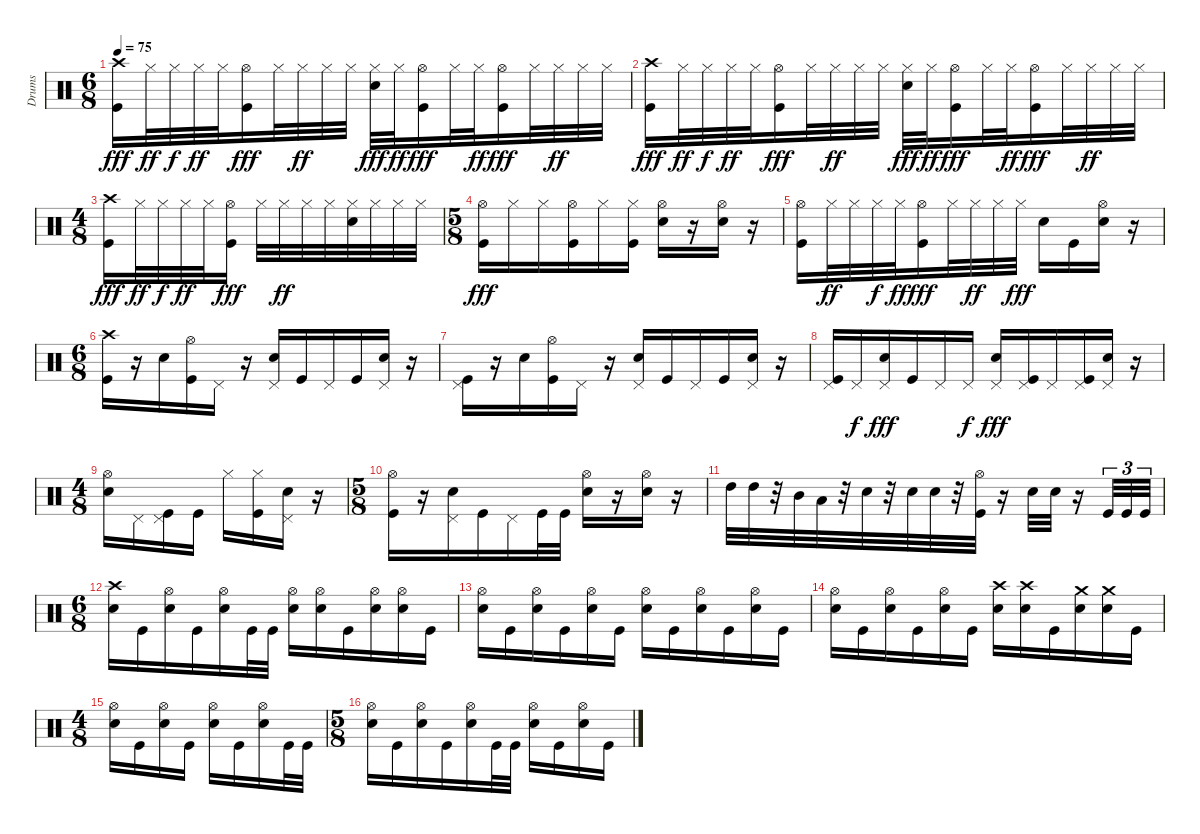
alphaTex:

\track ("Drums" "Drums") {instrument percussion}
\staff {score}
\articulation defaults
\ts (6 8)
\tempo 75
\clef neutral
\ks c
("Crash high (hit)" "Kick (hit)").16{dy fff} "Hi-Hat (closed)".32{dy ff} "Hi-Hat (closed)".32{dy f} "Hi-Hat (closed)".32{dy ff} "Hi-Hat (closed)".32 ("Hi-Hat (open)" "Kick (hit)").16{dy fff} "Hi-Hat (closed)".32 "Hi-Hat (closed)".32{dy ff} "Hi-Hat (closed)".32 "Hi-Hat (closed)".32 ("Hi-Hat (closed)" "Snare (hit) 2").32{dy fff} "Hi-Hat (closed)".32{dy ff} ("Hi-Hat (open)" "Kick (hit)").16{dy fff} "Hi-Hat (closed)".32 "Hi-Hat (closed)".32{dy ff} ("Hi-Hat (open)" "Kick (hit)").16{dy fff} "Hi-Hat (closed)".32 "Hi-Hat (closed)".32{dy ff} "Hi-Hat (closed)".32 "Hi-Hat (closed)".32 |
("Crash high (hit)" "Kick (hit)").16{dy fff} "Hi-Hat (closed)".32{dy ff} "Hi-Hat (closed)".32{dy f} "Hi-Hat (closed)".32{dy ff} "Hi-Hat (closed)".32 ("Hi-Hat (open)" "Kick (hit)").16{dy fff} "Hi-Hat (closed)".32 "Hi-Hat (closed)".32{dy ff} "Hi-Hat (closed)".32 "Hi-Hat (closed)".32 ("Hi-Hat (closed)" "Snare (hit) 2").32{dy fff} "Hi-Hat (closed)".32{dy ff} ("Hi-Hat (open)" "Kick (hit)").16{dy fff} "Hi-Hat (closed)".32 "Hi-Hat (closed)".32{dy ff} ("Hi-Hat (open)" "Kick (hit)").16{dy fff} "Hi-Hat (closed)".32 "Hi-Hat (closed)".32{dy ff} "Hi-Hat (closed)".32 "Hi-Hat (closed)".32 |
\ts (4 8)
("Kick (hit)" "Crash high (hit)").16{dy fff} "Hi-Hat (closed)".32{dy ff} "Hi-Hat (closed)".32{dy f} "Hi-Hat (closed)".32{dy ff} "Hi-Hat (closed)".32 ("Kick (hit)" "Hi-Hat (open)").16{dy fff} "Hi-Hat (closed)".32 "Hi-Hat (closed)".32{dy ff} "Hi-Hat (closed)".32 "Hi-Hat (closed)".32 ("Snare (hit) 2" "Hi-Hat (closed)").32 "Hi-Hat (closed)".32 "Hi-Hat (closed)".32 "Hi-Hat (closed)".32 |
\ts (5 8)
("Hi-Hat (open)" "Kick (hit)").16{dy fff} "Hi-Hat (closed)".16 "Hi-Hat (closed)".16 ("Hi-Hat (open)" "Kick (hit)").16 "Hi-Hat (closed)".16 ("Hi-Hat (closed)" "Kick (hit)").16 ("Hi-Hat (open)" "Snare (hit) 2").16 r.16 ("Snare (hit) 2" "Hi-Hat (open)").16 r.16 |
("Kick (hit)" "Hi-Hat (open)").16 "Hi-Hat (closed)".32{dy ff} "Hi-Hat (closed)".32 "Hi-Hat (closed)".32{dy f} "Hi-Hat (closed)".32{dy ff} ("Kick (hit)" "Hi-Hat (open)").16{dy fff} "Hi-Hat (closed)".32 "Hi-Hat (closed)".32{dy ff} "Hi-Hat (closed)".32 "Hi-Hat (closed)".32{dy fff} "Snare (hit) 2".16 "Kick (hit)".16 ("Hi-Hat (open)" "Snare (hit) 2").16 r.16 |
\ts (6 8)
("Crash high (hit)" "Kick (hit)").16 r.16 "Snare (hit) 2".16 ("Hi-Hat (open)" "Kick (hit)").16 "Pedal Hi-Hat (hit)".16 r.16 ("Pedal Hi-Hat (hit)" "Snare (hit) 2").16 "Kick (hit)".16 "Pedal Hi-Hat (hit)".16 "Kick (hit)".16 ("Pedal Hi-Hat (hit)" "Snare (hit) 2").16 r.16 |
("Pedal Hi-Hat (hit)" "Kick (hit)").16 r.16 "Snare (hit) 2".16 ("Kick (hit)" "Hi-Hat (open)").16 "Pedal Hi-Hat (hit)".16 r.16 ("Snare (hit) 2" "Pedal Hi-Hat (hit)").16 "Kick (hit)".16 "Pedal Hi-Hat (hit)".16 "Kick (hit)".16 ("Snare (hit) 2" "Pedal Hi-Hat (hit)").16 r.16 |
("Kick (hit)" "Pedal Hi-Hat (hit)").16 "Pedal Hi-Hat (hit)".16{dy f} ("Snare (hit) 2" "Pedal Hi-Hat (hit)").16{dy fff} "Kick (hit)".16 "Pedal Hi-Hat (hit)".16 "Pedal Hi-Hat (hit)".16{dy f} ("Snare (hit) 2" "Pedal Hi-Hat (hit)").16{dy fff} ("Kick (hit)" "Pedal Hi-Hat (hit)").16 "Pedal Hi-Hat (hit)".16 ("Kick (hit)" "Pedal Hi-Hat (hit)").16 ("Snare (hit) 2" "Pedal Hi-Hat (hit)").16 r.16 |
\ts (4 8)
("Snare (hit) 2" "Hi-Hat (open)").16 "Pedal Hi-Hat (hit)".16 ("Kick (hit)" "Pedal Hi-Hat (hit)").16 "Kick (hit)".16 "Hi-Hat (closed)".16 ("Kick (hit)" "Hi-Hat (closed)").16 ("Snare (hit) 2" "Pedal Hi-Hat (hit)").16 r.16 |
\ts (5 8)
("Hi-Hat (open)" "Kick (hit)").16 r.16 ("Pedal Hi-Hat (hit)" "Snare (hit) 2").16 "Kick (hit)".16 "Pedal Hi-Hat (hit)".16 "Kick (hit)".32 "Kick (hit)".32 ("Hi-Hat (open)" "Snare (hit) 2").16 r.16 ("Hi-Hat (open)" "Snare (hit) 2").16 r.16 |
"High Tom (hit)".32 "High Tom (hit)".32 r.32 "Mid Tom (hit)".32 "Low Tom (hit)".32 r.32 "Snare (hit) 2".32 r.32 "Snare (hit) 2".32 "Snare (hit) 2".32 r.32 ("Hi-Hat (open)" "Kick (hit)").32 r.16 "Snare (hit) 2".32 "Snare (hit) 2".32 r.16 "Kick (hit)".32{tu (3 2)} "Kick (hit)".32{tu (3 2)} "Kick (hit)".32{tu (3 2)} |
\ts (6 8)
("Crash high (hit)" "Snare (hit) 2").16 "Kick (hit)".16 ("Hi-Hat (open)" "Snare (hit) 2").16 "Kick (hit)".16 ("Hi-Hat (open)" "Snare (hit) 2").16 "Kick (hit)".32 "Kick (hit)".32 ("Hi-Hat (open)" "Snare (hit) 2").16 ("Hi-Hat (open)" "Snare (hit) 2").16 "Kick (hit)".16 ("Hi-Hat (open)" "Snare (hit) 2").16 ("Snare (hit) 2" "Hi-Hat (open)").16 "Kick (hit)".16 |
("Hi-Hat (open)" "Snare (hit) 2").16 "Kick (hit)".16 ("Hi-Hat (open)" "Snare (hit) 2").16 "Kick (hit)".16 ("Hi-Hat (open)" "Snare (hit) 2").16 "Kick (hit)".16 ("Hi-Hat (open)" "Snare (hit) 2").16 "Kick (hit)".16 ("Hi-Hat (open)" "Snare (hit) 2").16 "Kick (hit)".16 ("Hi-Hat (open)" "Snare (hit) 2").16 "Kick (hit)".16 |
("Hi-Hat (open)" "Snare (hit) 2").16 "Kick (hit)".16 ("Hi-Hat (open)" "Snare (hit) 2").16 "Kick (hit)".16 ("Hi-Hat (open)" "Snare (hit) 2").16 "Kick (hit)".16 ("Crash high (hit)" "Snare (hit) 2").16 ("Crash high (hit)" "Snare (hit) 2").16 "Kick (hit)".16 ("Crash medium (hit)" "Snare (hit) 2").16 ("Snare (hit) 2" "Crash medium (hit)").16 "Kick (hit)".16 |
\ts (4 8)
("Snare (hit) 2" "Hi-Hat (open)").16 "Kick (hit)".16 ("Snare (hit) 2" "Hi-Hat (open)").16 "Kick (hit)".16 ("Snare (hit) 2" "Hi-Hat (open)").16 "Kick (hit)".16 ("Snare (hit) 2" "Hi-Hat (open)").16 "Kick (hit)".32 "Kick (hit)".32 |
\ts (5 8)
("Hi-Hat (open)" "Snare (hit) 2").16 "Kick (hit)".16 ("Hi-Hat (open)" "Snare (hit) 2").16 "Kick (hit)".16 ("Hi-Hat (open)" "Snare (hit) 2").16 "Kick (hit)".32 "Kick (hit)".32 ("Hi-Hat (open)" "Snare (hit) 2").16 "Kick (hit)".16 ("Hi-Hat (open)" "Snare (hit) 2").16 "Kick (hit)".16
